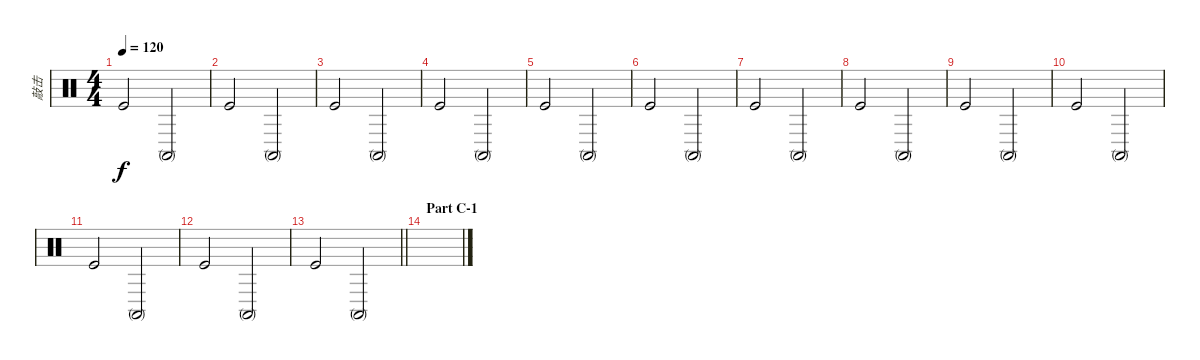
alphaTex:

\track ("敲击" "敲击") {instrument percussion}
\staff {score}
\articulation defaults
\ts (4 4)
\tempo 120
\clef neutral
\ks c "Kick (hit)".2{dy f} "Conga high (mute)".2
|
"Kick (hit)".2 "Conga high (mute)".2 |
"Kick (hit)".2 "Conga high (mute)".2 |
"Kick (hit)".2 "Conga high (mute)".2 |
"Kick (hit)".2 "Conga high (mute)".2 |
"Kick (hit)".2 "Conga high (mute)".2 |
"Kick (hit)".2 "Conga high (mute)".2 |
"Kick (hit)".2 "Conga high (mute)".2 |
"Kick (hit)".2 "Conga high (mute)".2 |
"Kick (hit)".2 "Conga high (mute)".2 |
"Kick (hit)".2 "Conga high (mute)".2 |
"Kick (hit)".2 "Conga high (mute)".2 |
\barLineRight lightlight "Kick (hit)".2 "Conga high (mute)".2
|
\section ("" "Part C-1")
